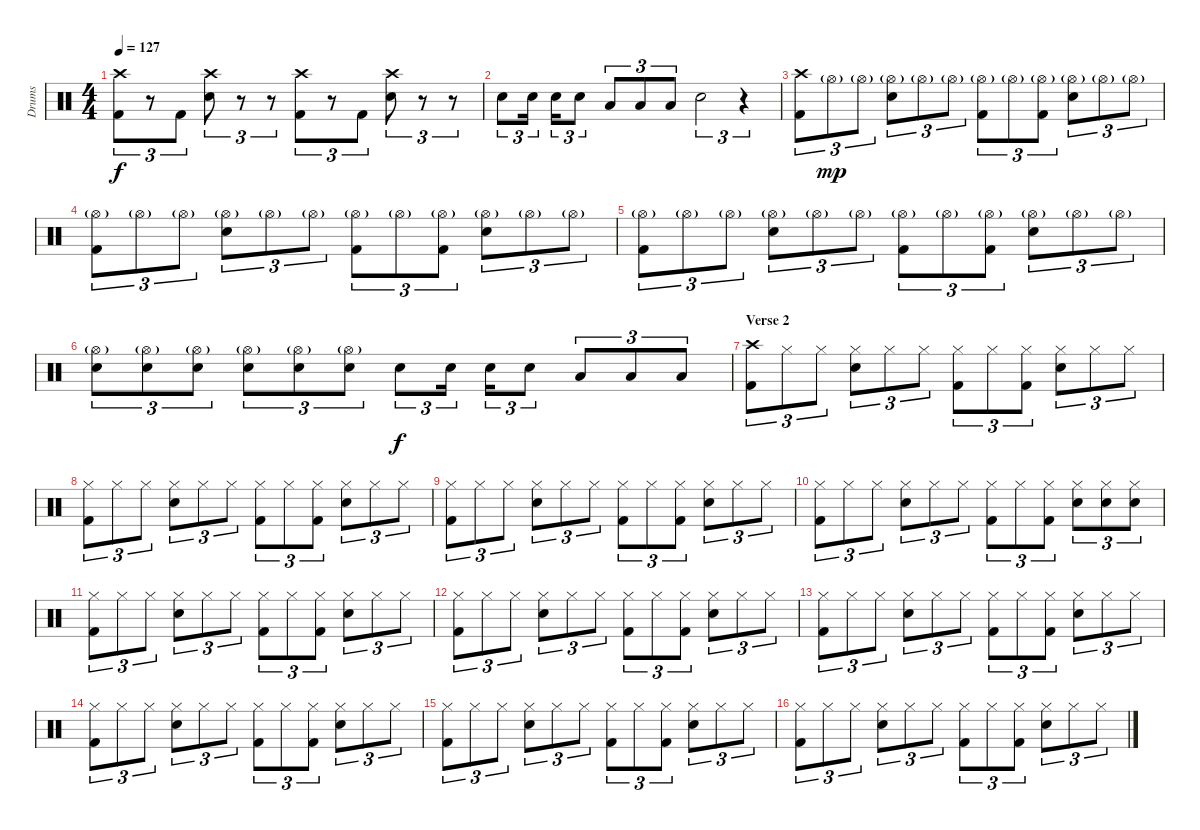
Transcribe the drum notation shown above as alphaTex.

\track ("Drums" "Drums") {instrument percussion}
\staff {score}
\articulation defaults
\ts (4 4)
\tempo 127
\clef neutral
\ks c
("Crash high (hit)" "Kick (hit) 2").8{tu (3 2) dy f} r.8{tu (3 2)} "Kick (hit) 2".8{tu (3 2)} ("Crash high (hit)" "Electric Snare (hit)").8{tu (3 2)} r.8{tu (3 2)} r.8{tu (3 2)} ("Crash high (hit)" "Kick (hit) 2").8{tu (3 2)} r.8{tu (3 2)} "Kick (hit) 2".8{tu (3 2)} ("Crash high (hit)" "Electric Snare (hit)").8{tu (3 2)} r.8{tu (3 2)} r.8{tu (3 2)} |
"Electric Snare (hit)".8{tu (3 2)} "Electric Snare (hit)".16{tu (3 2)} "Electric Snare (hit)".16{tu (3 2)} "Electric Snare (hit)".8{tu (3 2)} "Low Tom (hit)".8{tu (3 2)} "Low Tom (hit)".8{tu (3 2)} "Low Tom (hit)".8{tu (3 2)} "Electric Snare (hit)".2{tu (3 2)} r.4{tu (3 2)} |
("Crash high (hit)" "Kick (hit) 2").8{tu (3 2)} "Hi-Hat (open)"{g}.8{tu (3 2) dy mp} "Hi-Hat (open)"{g}.8{tu (3 2)} ("Hi-Hat (open)"{g} "Electric Snare (hit)").8{tu (3 2)} "Hi-Hat (open)"{g}.8{tu (3 2)} "Hi-Hat (open)"{g}.8{tu (3 2)} ("Hi-Hat (open)"{g} "Kick (hit) 2").8{tu (3 2)} "Hi-Hat (open)"{g}.8{tu (3 2)} ("Hi-Hat (open)"{g} "Kick (hit) 2").8{tu (3 2)} ("Hi-Hat (open)"{g} "Electric Snare (hit)").8{tu (3 2)} "Hi-Hat (open)"{g}.8{tu (3 2)} "Hi-Hat (open)"{g}.8{tu (3 2)} |
("Hi-Hat (open)"{g} "Kick (hit) 2").8{tu (3 2)} "Hi-Hat (open)"{g}.8{tu (3 2)} "Hi-Hat (open)"{g}.8{tu (3 2)} ("Hi-Hat (open)"{g} "Electric Snare (hit)").8{tu (3 2)} "Hi-Hat (open)"{g}.8{tu (3 2)} "Hi-Hat (open)"{g}.8{tu (3 2)} ("Hi-Hat (open)"{g} "Kick (hit) 2").8{tu (3 2)} "Hi-Hat (open)"{g}.8{tu (3 2)} ("Hi-Hat (open)"{g} "Kick (hit) 2").8{tu (3 2)} ("Hi-Hat (open)"{g} "Electric Snare (hit)").8{tu (3 2)} "Hi-Hat (open)"{g}.8{tu (3 2)} "Hi-Hat (open)"{g}.8{tu (3 2)} |
("Hi-Hat (open)"{g} "Kick (hit) 2").8{tu (3 2)} "Hi-Hat (open)"{g}.8{tu (3 2)} "Hi-Hat (open)"{g}.8{tu (3 2)} ("Hi-Hat (open)"{g} "Electric Snare (hit)").8{tu (3 2)} "Hi-Hat (open)"{g}.8{tu (3 2)} "Hi-Hat (open)"{g}.8{tu (3 2)} ("Hi-Hat (open)"{g} "Kick (hit) 2").8{tu (3 2)} "Hi-Hat (open)"{g}.8{tu (3 2)} ("Hi-Hat (open)"{g} "Kick (hit) 2").8{tu (3 2)} ("Hi-Hat (open)"{g} "Electric Snare (hit)").8{tu (3 2)} "Hi-Hat (open)"{g}.8{tu (3 2)} "Hi-Hat (open)"{g}.8{tu (3 2)} |
("Hi-Hat (open)"{g} "Electric Snare (hit)").8{tu (3 2)} ("Hi-Hat (open)"{g} "Electric Snare (hit)").8{tu (3 2)} ("Hi-Hat (open)"{g} "Electric Snare (hit)").8{tu (3 2)} ("Hi-Hat (open)"{g} "Electric Snare (hit)").8{tu (3 2)} ("Hi-Hat (open)"{g} "Electric Snare (hit)").8{tu (3 2)} ("Hi-Hat (open)"{g} "Electric Snare (hit)").8{tu (3 2)} "Electric Snare (hit)".8{tu (3 2) dy f} "Electric Snare (hit)".16{tu (3 2)} "Electric Snare (hit)".16{tu (3 2)} "Electric Snare (hit)".8{tu (3 2)} "Low Tom (hit)".8{tu (3 2)} "Low Tom (hit)".8{tu (3 2)} "Low Tom (hit)".8{tu (3 2)} |
\section ("" "Verse 2")
("Crash high (hit)" "Kick (hit) 2").8{tu (3 2)} "Hi-Hat (closed)".8{tu (3 2)} "Hi-Hat (closed)".8{tu (3 2)} ("Hi-Hat (closed)" "Electric Snare (hit)").8{tu (3 2)} "Hi-Hat (closed)".8{tu (3 2)} "Hi-Hat (closed)".8{tu (3 2)} ("Hi-Hat (closed)" "Kick (hit) 2").8{tu (3 2)} "Hi-Hat (closed)".8{tu (3 2)} ("Hi-Hat (closed)" "Kick (hit) 2").8{tu (3 2)} ("Hi-Hat (closed)" "Electric Snare (hit)").8{tu (3 2)} "Hi-Hat (closed)".8{tu (3 2)} "Hi-Hat (closed)".8{tu (3 2)} |
("Hi-Hat (closed)" "Kick (hit) 2").8{tu (3 2)} "Hi-Hat (closed)".8{tu (3 2)} "Hi-Hat (closed)".8{tu (3 2)} ("Hi-Hat (closed)" "Electric Snare (hit)").8{tu (3 2)} "Hi-Hat (closed)".8{tu (3 2)} "Hi-Hat (closed)".8{tu (3 2)} ("Hi-Hat (closed)" "Kick (hit) 2").8{tu (3 2)} "Hi-Hat (closed)".8{tu (3 2)} ("Hi-Hat (closed)" "Kick (hit) 2").8{tu (3 2)} ("Hi-Hat (closed)" "Electric Snare (hit)").8{tu (3 2)} "Hi-Hat (closed)".8{tu (3 2)} "Hi-Hat (closed)".8{tu (3 2)} |
("Hi-Hat (closed)" "Kick (hit) 2").8{tu (3 2)} "Hi-Hat (closed)".8{tu (3 2)} "Hi-Hat (closed)".8{tu (3 2)} ("Hi-Hat (closed)" "Electric Snare (hit)").8{tu (3 2)} "Hi-Hat (closed)".8{tu (3 2)} "Hi-Hat (closed)".8{tu (3 2)} ("Hi-Hat (closed)" "Kick (hit) 2").8{tu (3 2)} "Hi-Hat (closed)".8{tu (3 2)} ("Hi-Hat (closed)" "Kick (hit) 2").8{tu (3 2)} ("Hi-Hat (closed)" "Electric Snare (hit)").8{tu (3 2)} "Hi-Hat (closed)".8{tu (3 2)} "Hi-Hat (closed)".8{tu (3 2)} |
("Hi-Hat (closed)" "Kick (hit) 2").8{tu (3 2)} "Hi-Hat (closed)".8{tu (3 2)} "Hi-Hat (closed)".8{tu (3 2)} ("Hi-Hat (closed)" "Electric Snare (hit)").8{tu (3 2)} "Hi-Hat (closed)".8{tu (3 2)} "Hi-Hat (closed)".8{tu (3 2)} ("Hi-Hat (closed)" "Kick (hit) 2").8{tu (3 2)} "Hi-Hat (closed)".8{tu (3 2)} ("Hi-Hat (closed)" "Kick (hit) 2").8{tu (3 2)} ("Hi-Hat (closed)" "Electric Snare (hit)").8{tu (3 2)} ("Hi-Hat (closed)" "Electric Snare (hit)").8{tu (3 2)} ("Hi-Hat (closed)" "Electric Snare (hit)").8{tu (3 2)} |
("Hi-Hat (closed)" "Kick (hit) 2").8{tu (3 2)} "Hi-Hat (closed)".8{tu (3 2)} "Hi-Hat (closed)".8{tu (3 2)} ("Hi-Hat (closed)" "Electric Snare (hit)").8{tu (3 2)} "Hi-Hat (closed)".8{tu (3 2)} "Hi-Hat (closed)".8{tu (3 2)} ("Hi-Hat (closed)" "Kick (hit) 2").8{tu (3 2)} "Hi-Hat (closed)".8{tu (3 2)} ("Hi-Hat (closed)" "Kick (hit) 2").8{tu (3 2)} ("Hi-Hat (closed)" "Electric Snare (hit)").8{tu (3 2)} "Hi-Hat (closed)".8{tu (3 2)} "Hi-Hat (closed)".8{tu (3 2)} |
("Hi-Hat (closed)" "Kick (hit) 2").8{tu (3 2)} "Hi-Hat (closed)".8{tu (3 2)} "Hi-Hat (closed)".8{tu (3 2)} ("Hi-Hat (closed)" "Electric Snare (hit)").8{tu (3 2)} "Hi-Hat (closed)".8{tu (3 2)} "Hi-Hat (closed)".8{tu (3 2)} ("Hi-Hat (closed)" "Kick (hit) 2").8{tu (3 2)} "Hi-Hat (closed)".8{tu (3 2)} ("Hi-Hat (closed)" "Kick (hit) 2").8{tu (3 2)} ("Hi-Hat (closed)" "Electric Snare (hit)").8{tu (3 2)} "Hi-Hat (closed)".8{tu (3 2)} "Hi-Hat (closed)".8{tu (3 2)} |
("Hi-Hat (closed)" "Kick (hit) 2").8{tu (3 2)} "Hi-Hat (closed)".8{tu (3 2)} "Hi-Hat (closed)".8{tu (3 2)} ("Hi-Hat (closed)" "Electric Snare (hit)").8{tu (3 2)} "Hi-Hat (closed)".8{tu (3 2)} "Hi-Hat (closed)".8{tu (3 2)} ("Hi-Hat (closed)" "Kick (hit) 2").8{tu (3 2)} "Hi-Hat (closed)".8{tu (3 2)} ("Hi-Hat (closed)" "Kick (hit) 2").8{tu (3 2)} ("Hi-Hat (closed)" "Electric Snare (hit)").8{tu (3 2)} "Hi-Hat (closed)".8{tu (3 2)} "Hi-Hat (closed)".8{tu (3 2)} |
("Hi-Hat (closed)" "Kick (hit) 2").8{tu (3 2)} "Hi-Hat (closed)".8{tu (3 2)} "Hi-Hat (closed)".8{tu (3 2)} ("Hi-Hat (closed)" "Electric Snare (hit)").8{tu (3 2)} "Hi-Hat (closed)".8{tu (3 2)} "Hi-Hat (closed)".8{tu (3 2)} ("Hi-Hat (closed)" "Kick (hit) 2").8{tu (3 2)} "Hi-Hat (closed)".8{tu (3 2)} ("Hi-Hat (closed)" "Kick (hit) 2").8{tu (3 2)} ("Hi-Hat (closed)" "Electric Snare (hit)").8{tu (3 2)} "Hi-Hat (closed)".8{tu (3 2)} "Hi-Hat (closed)".8{tu (3 2)} |
("Hi-Hat (closed)" "Kick (hit) 2").8{tu (3 2)} "Hi-Hat (closed)".8{tu (3 2)} "Hi-Hat (closed)".8{tu (3 2)} ("Hi-Hat (closed)" "Electric Snare (hit)").8{tu (3 2)} "Hi-Hat (closed)".8{tu (3 2)} "Hi-Hat (closed)".8{tu (3 2)} ("Hi-Hat (closed)" "Kick (hit) 2").8{tu (3 2)} "Hi-Hat (closed)".8{tu (3 2)} ("Hi-Hat (closed)" "Kick (hit) 2").8{tu (3 2)} ("Hi-Hat (closed)" "Electric Snare (hit)").8{tu (3 2)} "Hi-Hat (closed)".8{tu (3 2)} "Hi-Hat (closed)".8{tu (3 2)} |
("Hi-Hat (closed)" "Kick (hit) 2").8{tu (3 2)} "Hi-Hat (closed)".8{tu (3 2)} "Hi-Hat (closed)".8{tu (3 2)} ("Hi-Hat (closed)" "Electric Snare (hit)").8{tu (3 2)} "Hi-Hat (closed)".8{tu (3 2)} "Hi-Hat (closed)".8{tu (3 2)} ("Hi-Hat (closed)" "Kick (hit) 2").8{tu (3 2)} "Hi-Hat (closed)".8{tu (3 2)} ("Hi-Hat (closed)" "Kick (hit) 2").8{tu (3 2)} ("Hi-Hat (closed)" "Electric Snare (hit)").8{tu (3 2)} "Hi-Hat (closed)".8{tu (3 2)} "Hi-Hat (closed)".8{tu (3 2)}
